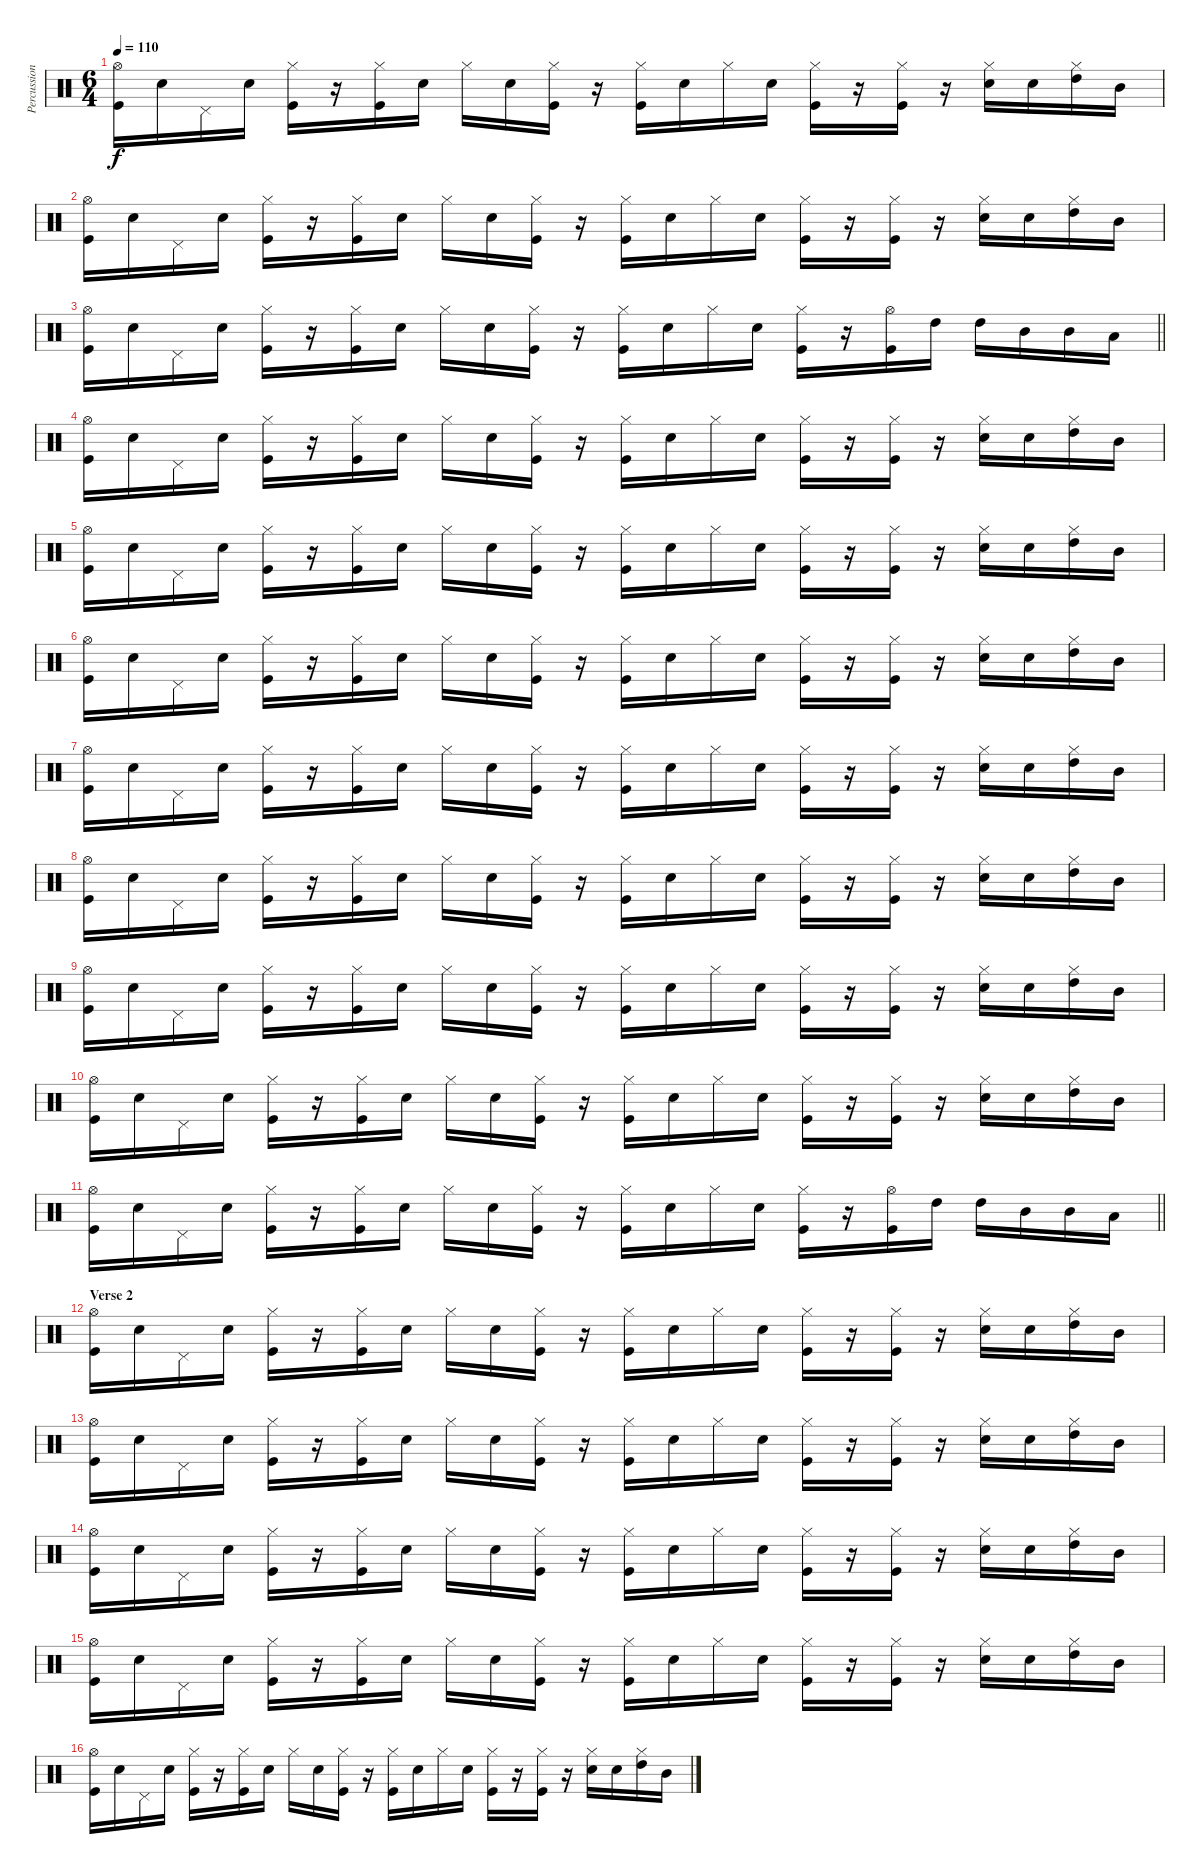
\track ("Percussion 1" "Percussion") {instrument percussion}
\staff {score}
\articulation defaults
\ts (6 4)
\tempo 110
\clef neutral
\ks c
("Hi-Hat (open)" "Kick (hit)").16{dy f} "Snare (hit) 2".16 "Pedal Hi-Hat (hit)".16 "Snare (hit) 2".16 ("Hi-Hat (closed)" "Kick (hit)").16 r.16 ("Hi-Hat (closed)" "Kick (hit)").16 "Snare (hit) 2".16 "Hi-Hat (closed)".16 "Snare (hit) 2".16 ("Hi-Hat (closed)" "Kick (hit)").16 r.16 ("Hi-Hat (closed)" "Kick (hit)").16 "Snare (hit) 2".16 "Hi-Hat (closed)".16 "Snare (hit) 2".16 ("Hi-Hat (closed)" "Kick (hit)").16 r.16 ("Hi-Hat (closed)" "Kick (hit)").16 r.16 ("Hi-Hat (closed)" "Snare (hit) 2").16 "Snare (hit) 2".16 ("Hi-Hat (closed)" "High Tom (hit)").16 "Mid Tom (hit)".16 |
("Hi-Hat (open)" "Kick (hit)").16 "Snare (hit) 2".16 "Pedal Hi-Hat (hit)".16 "Snare (hit) 2".16 ("Hi-Hat (closed)" "Kick (hit)").16 r.16 ("Hi-Hat (closed)" "Kick (hit)").16 "Snare (hit) 2".16 "Hi-Hat (closed)".16 "Snare (hit) 2".16 ("Hi-Hat (closed)" "Kick (hit)").16 r.16 ("Hi-Hat (closed)" "Kick (hit)").16 "Snare (hit) 2".16 "Hi-Hat (closed)".16 "Snare (hit) 2".16 ("Hi-Hat (closed)" "Kick (hit)").16 r.16 ("Hi-Hat (closed)" "Kick (hit)").16 r.16 ("Hi-Hat (closed)" "Snare (hit) 2").16 "Snare (hit) 2".16 ("Hi-Hat (closed)" "High Tom (hit)").16 "Mid Tom (hit)".16 |
\barLineRight lightlight
("Hi-Hat (open)" "Kick (hit)").16 "Snare (hit) 2".16 "Pedal Hi-Hat (hit)".16 "Snare (hit) 2".16 ("Hi-Hat (closed)" "Kick (hit)").16 r.16 ("Hi-Hat (closed)" "Kick (hit)").16 "Snare (hit) 2".16 "Hi-Hat (closed)".16 "Snare (hit) 2".16 ("Hi-Hat (closed)" "Kick (hit)").16 r.16 ("Hi-Hat (closed)" "Kick (hit)").16 "Snare (hit) 2".16 "Hi-Hat (closed)".16 "Snare (hit) 2".16 ("Hi-Hat (closed)" "Kick (hit)").16 r.16 ("Hi-Hat (open)" "Kick (hit)").16 "High Tom (hit)".16 "High Tom (hit)".16 "Mid Tom (hit)".16 "Mid Tom (hit)".16 "Low Tom (hit)".16 |
("Hi-Hat (open)" "Kick (hit)").16 "Snare (hit) 2".16 "Pedal Hi-Hat (hit)".16 "Snare (hit) 2".16 ("Hi-Hat (closed)" "Kick (hit)").16 r.16 ("Hi-Hat (closed)" "Kick (hit)").16 "Snare (hit) 2".16 "Hi-Hat (closed)".16 "Snare (hit) 2".16 ("Hi-Hat (closed)" "Kick (hit)").16 r.16 ("Hi-Hat (closed)" "Kick (hit)").16 "Snare (hit) 2".16 "Hi-Hat (closed)".16 "Snare (hit) 2".16 ("Hi-Hat (closed)" "Kick (hit)").16 r.16 ("Hi-Hat (closed)" "Kick (hit)").16 r.16 ("Hi-Hat (closed)" "Snare (hit) 2").16 "Snare (hit) 2".16 ("Hi-Hat (closed)" "High Tom (hit)").16 "Mid Tom (hit)".16 |
("Hi-Hat (open)" "Kick (hit)").16 "Snare (hit) 2".16 "Pedal Hi-Hat (hit)".16 "Snare (hit) 2".16 ("Hi-Hat (closed)" "Kick (hit)").16 r.16 ("Hi-Hat (closed)" "Kick (hit)").16 "Snare (hit) 2".16 "Hi-Hat (closed)".16 "Snare (hit) 2".16 ("Hi-Hat (closed)" "Kick (hit)").16 r.16 ("Hi-Hat (closed)" "Kick (hit)").16 "Snare (hit) 2".16 "Hi-Hat (closed)".16 "Snare (hit) 2".16 ("Hi-Hat (closed)" "Kick (hit)").16 r.16 ("Hi-Hat (closed)" "Kick (hit)").16 r.16 ("Hi-Hat (closed)" "Snare (hit) 2").16 "Snare (hit) 2".16 ("Hi-Hat (closed)" "High Tom (hit)").16 "Mid Tom (hit)".16 |
("Hi-Hat (open)" "Kick (hit)").16 "Snare (hit) 2".16 "Pedal Hi-Hat (hit)".16 "Snare (hit) 2".16 ("Hi-Hat (closed)" "Kick (hit)").16 r.16 ("Hi-Hat (closed)" "Kick (hit)").16 "Snare (hit) 2".16 "Hi-Hat (closed)".16 "Snare (hit) 2".16 ("Hi-Hat (closed)" "Kick (hit)").16 r.16 ("Hi-Hat (closed)" "Kick (hit)").16 "Snare (hit) 2".16 "Hi-Hat (closed)".16 "Snare (hit) 2".16 ("Hi-Hat (closed)" "Kick (hit)").16 r.16 ("Hi-Hat (closed)" "Kick (hit)").16 r.16 ("Hi-Hat (closed)" "Snare (hit) 2").16 "Snare (hit) 2".16 ("Hi-Hat (closed)" "High Tom (hit)").16 "Mid Tom (hit)".16 |
("Hi-Hat (open)" "Kick (hit)").16 "Snare (hit) 2".16 "Pedal Hi-Hat (hit)".16 "Snare (hit) 2".16 ("Hi-Hat (closed)" "Kick (hit)").16 r.16 ("Hi-Hat (closed)" "Kick (hit)").16 "Snare (hit) 2".16 "Hi-Hat (closed)".16 "Snare (hit) 2".16 ("Hi-Hat (closed)" "Kick (hit)").16 r.16 ("Hi-Hat (closed)" "Kick (hit)").16 "Snare (hit) 2".16 "Hi-Hat (closed)".16 "Snare (hit) 2".16 ("Hi-Hat (closed)" "Kick (hit)").16 r.16 ("Hi-Hat (closed)" "Kick (hit)").16 r.16 ("Hi-Hat (closed)" "Snare (hit) 2").16 "Snare (hit) 2".16 ("Hi-Hat (closed)" "High Tom (hit)").16 "Mid Tom (hit)".16 |
("Hi-Hat (open)" "Kick (hit)").16 "Snare (hit) 2".16 "Pedal Hi-Hat (hit)".16 "Snare (hit) 2".16 ("Hi-Hat (closed)" "Kick (hit)").16 r.16 ("Hi-Hat (closed)" "Kick (hit)").16 "Snare (hit) 2".16 "Hi-Hat (closed)".16 "Snare (hit) 2".16 ("Hi-Hat (closed)" "Kick (hit)").16 r.16 ("Hi-Hat (closed)" "Kick (hit)").16 "Snare (hit) 2".16 "Hi-Hat (closed)".16 "Snare (hit) 2".16 ("Hi-Hat (closed)" "Kick (hit)").16 r.16 ("Hi-Hat (closed)" "Kick (hit)").16 r.16 ("Hi-Hat (closed)" "Snare (hit) 2").16 "Snare (hit) 2".16 ("Hi-Hat (closed)" "High Tom (hit)").16 "Mid Tom (hit)".16 |
("Hi-Hat (open)" "Kick (hit)").16 "Snare (hit) 2".16 "Pedal Hi-Hat (hit)".16 "Snare (hit) 2".16 ("Hi-Hat (closed)" "Kick (hit)").16 r.16 ("Hi-Hat (closed)" "Kick (hit)").16 "Snare (hit) 2".16 "Hi-Hat (closed)".16 "Snare (hit) 2".16 ("Hi-Hat (closed)" "Kick (hit)").16 r.16 ("Hi-Hat (closed)" "Kick (hit)").16 "Snare (hit) 2".16 "Hi-Hat (closed)".16 "Snare (hit) 2".16 ("Hi-Hat (closed)" "Kick (hit)").16 r.16 ("Hi-Hat (closed)" "Kick (hit)").16 r.16 ("Hi-Hat (closed)" "Snare (hit) 2").16 "Snare (hit) 2".16 ("Hi-Hat (closed)" "High Tom (hit)").16 "Mid Tom (hit)".16 |
("Hi-Hat (open)" "Kick (hit)").16 "Snare (hit) 2".16 "Pedal Hi-Hat (hit)".16 "Snare (hit) 2".16 ("Hi-Hat (closed)" "Kick (hit)").16 r.16 ("Hi-Hat (closed)" "Kick (hit)").16 "Snare (hit) 2".16 "Hi-Hat (closed)".16 "Snare (hit) 2".16 ("Hi-Hat (closed)" "Kick (hit)").16 r.16 ("Hi-Hat (closed)" "Kick (hit)").16 "Snare (hit) 2".16 "Hi-Hat (closed)".16 "Snare (hit) 2".16 ("Hi-Hat (closed)" "Kick (hit)").16 r.16 ("Hi-Hat (closed)" "Kick (hit)").16 r.16 ("Hi-Hat (closed)" "Snare (hit) 2").16 "Snare (hit) 2".16 ("Hi-Hat (closed)" "High Tom (hit)").16 "Mid Tom (hit)".16 |
\barLineRight lightlight
("Hi-Hat (open)" "Kick (hit)").16 "Snare (hit) 2".16 "Pedal Hi-Hat (hit)".16 "Snare (hit) 2".16 ("Hi-Hat (closed)" "Kick (hit)").16 r.16 ("Hi-Hat (closed)" "Kick (hit)").16 "Snare (hit) 2".16 "Hi-Hat (closed)".16 "Snare (hit) 2".16 ("Hi-Hat (closed)" "Kick (hit)").16 r.16 ("Hi-Hat (closed)" "Kick (hit)").16 "Snare (hit) 2".16 "Hi-Hat (closed)".16 "Snare (hit) 2".16 ("Hi-Hat (closed)" "Kick (hit)").16 r.16 ("Hi-Hat (open)" "Kick (hit)").16 "High Tom (hit)".16 "High Tom (hit)".16 "Mid Tom (hit)".16 "Mid Tom (hit)".16 "Low Tom (hit)".16 |
\section ("" "Verse 2")
("Hi-Hat (open)" "Kick (hit)").16 "Snare (hit) 2".16 "Pedal Hi-Hat (hit)".16 "Snare (hit) 2".16 ("Hi-Hat (closed)" "Kick (hit)").16 r.16 ("Hi-Hat (closed)" "Kick (hit)").16 "Snare (hit) 2".16 "Hi-Hat (closed)".16 "Snare (hit) 2".16 ("Hi-Hat (closed)" "Kick (hit)").16 r.16 ("Hi-Hat (closed)" "Kick (hit)").16 "Snare (hit) 2".16 "Hi-Hat (closed)".16 "Snare (hit) 2".16 ("Hi-Hat (closed)" "Kick (hit)").16 r.16 ("Hi-Hat (closed)" "Kick (hit)").16 r.16 ("Hi-Hat (closed)" "Snare (hit) 2").16 "Snare (hit) 2".16 ("Hi-Hat (closed)" "High Tom (hit)").16 "Mid Tom (hit)".16 |
("Hi-Hat (open)" "Kick (hit)").16 "Snare (hit) 2".16 "Pedal Hi-Hat (hit)".16 "Snare (hit) 2".16 ("Hi-Hat (closed)" "Kick (hit)").16 r.16 ("Hi-Hat (closed)" "Kick (hit)").16 "Snare (hit) 2".16 "Hi-Hat (closed)".16 "Snare (hit) 2".16 ("Hi-Hat (closed)" "Kick (hit)").16 r.16 ("Hi-Hat (closed)" "Kick (hit)").16 "Snare (hit) 2".16 "Hi-Hat (closed)".16 "Snare (hit) 2".16 ("Hi-Hat (closed)" "Kick (hit)").16 r.16 ("Hi-Hat (closed)" "Kick (hit)").16 r.16 ("Hi-Hat (closed)" "Snare (hit) 2").16 "Snare (hit) 2".16 ("Hi-Hat (closed)" "High Tom (hit)").16 "Mid Tom (hit)".16 |
("Hi-Hat (open)" "Kick (hit)").16 "Snare (hit) 2".16 "Pedal Hi-Hat (hit)".16 "Snare (hit) 2".16 ("Hi-Hat (closed)" "Kick (hit)").16 r.16 ("Hi-Hat (closed)" "Kick (hit)").16 "Snare (hit) 2".16 "Hi-Hat (closed)".16 "Snare (hit) 2".16 ("Hi-Hat (closed)" "Kick (hit)").16 r.16 ("Hi-Hat (closed)" "Kick (hit)").16 "Snare (hit) 2".16 "Hi-Hat (closed)".16 "Snare (hit) 2".16 ("Hi-Hat (closed)" "Kick (hit)").16 r.16 ("Hi-Hat (closed)" "Kick (hit)").16 r.16 ("Hi-Hat (closed)" "Snare (hit) 2").16 "Snare (hit) 2".16 ("Hi-Hat (closed)" "High Tom (hit)").16 "Mid Tom (hit)".16 |
("Hi-Hat (open)" "Kick (hit)").16 "Snare (hit) 2".16 "Pedal Hi-Hat (hit)".16 "Snare (hit) 2".16 ("Hi-Hat (closed)" "Kick (hit)").16 r.16 ("Hi-Hat (closed)" "Kick (hit)").16 "Snare (hit) 2".16 "Hi-Hat (closed)".16 "Snare (hit) 2".16 ("Hi-Hat (closed)" "Kick (hit)").16 r.16 ("Hi-Hat (closed)" "Kick (hit)").16 "Snare (hit) 2".16 "Hi-Hat (closed)".16 "Snare (hit) 2".16 ("Hi-Hat (closed)" "Kick (hit)").16 r.16 ("Hi-Hat (closed)" "Kick (hit)").16 r.16 ("Hi-Hat (closed)" "Snare (hit) 2").16 "Snare (hit) 2".16 ("Hi-Hat (closed)" "High Tom (hit)").16 "Mid Tom (hit)".16 |
("Hi-Hat (open)" "Kick (hit)").16 "Snare (hit) 2".16 "Pedal Hi-Hat (hit)".16 "Snare (hit) 2".16 ("Hi-Hat (closed)" "Kick (hit)").16 r.16 ("Hi-Hat (closed)" "Kick (hit)").16 "Snare (hit) 2".16 "Hi-Hat (closed)".16 "Snare (hit) 2".16 ("Hi-Hat (closed)" "Kick (hit)").16 r.16 ("Hi-Hat (closed)" "Kick (hit)").16 "Snare (hit) 2".16 "Hi-Hat (closed)".16 "Snare (hit) 2".16 ("Hi-Hat (closed)" "Kick (hit)").16 r.16 ("Hi-Hat (closed)" "Kick (hit)").16 r.16 ("Hi-Hat (closed)" "Snare (hit) 2").16 "Snare (hit) 2".16 ("Hi-Hat (closed)" "High Tom (hit)").16 "Mid Tom (hit)".16
